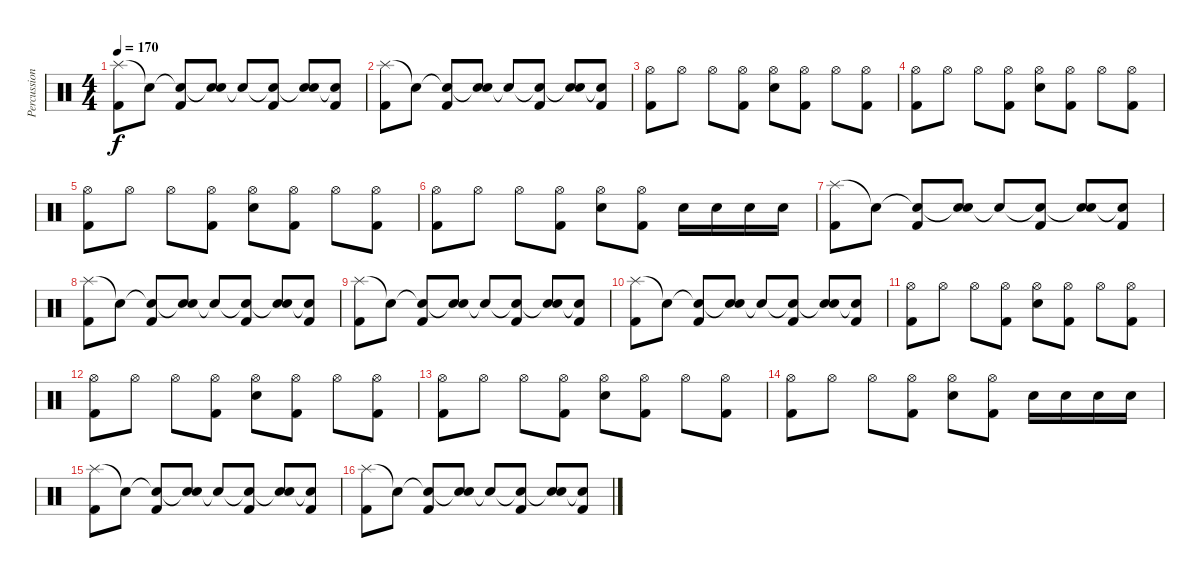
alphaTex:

\track ("Percussion" "Percussion") {instrument percussion}
\staff {score}
\articulation defaults
\ts (4 4)
\tempo 170
\clef neutral
\ks c
("Splash (hit)" "Kick (hit) 2").8{dy f} "Snare (hit)"{t}.8 ("Snare (hit)"{t} "Kick (hit) 2").8 ("Snare (hit)"{t} "Electric Snare (hit)").8 "Snare (hit)"{t}.8 ("Snare (hit)"{t} "Kick (hit) 2").8 ("Snare (hit)"{t} "Electric Snare (hit)").8 ("Snare (hit)"{t} "Kick (hit) 2").8 |
("Splash (hit)" "Kick (hit) 2").8 "Snare (hit)"{t}.8 ("Snare (hit)"{t} "Kick (hit) 2").8 ("Snare (hit)"{t} "Electric Snare (hit)").8 "Snare (hit)"{t}.8 ("Snare (hit)"{t} "Kick (hit) 2").8 ("Snare (hit)"{t} "Electric Snare (hit)").8 ("Snare (hit)"{t} "Kick (hit) 2").8 |
("Hi-Hat (open)" "Kick (hit) 2").8 "Hi-Hat (open)".8 "Hi-Hat (open)".8 ("Hi-Hat (open)" "Kick (hit) 2").8 ("Hi-Hat (open)" "Electric Snare (hit)").8 ("Hi-Hat (open)" "Kick (hit) 2").8 "Hi-Hat (open)".8 ("Hi-Hat (open)" "Kick (hit) 2").8 |
("Hi-Hat (open)" "Kick (hit) 2").8 "Hi-Hat (open)".8 "Hi-Hat (open)".8 ("Hi-Hat (open)" "Kick (hit) 2").8 ("Hi-Hat (open)" "Electric Snare (hit)").8 ("Hi-Hat (open)" "Kick (hit) 2").8 "Hi-Hat (open)".8 ("Hi-Hat (open)" "Kick (hit) 2").8 |
("Hi-Hat (open)" "Kick (hit) 2").8 "Hi-Hat (open)".8 "Hi-Hat (open)".8 ("Hi-Hat (open)" "Kick (hit) 2").8 ("Hi-Hat (open)" "Electric Snare (hit)").8 ("Hi-Hat (open)" "Kick (hit) 2").8 "Hi-Hat (open)".8 ("Hi-Hat (open)" "Kick (hit) 2").8 |
("Hi-Hat (open)" "Kick (hit) 2").8 "Hi-Hat (open)".8 "Hi-Hat (open)".8 ("Hi-Hat (open)" "Kick (hit) 2").8 ("Hi-Hat (open)" "Electric Snare (hit)").8 ("Hi-Hat (open)" "Kick (hit) 2").8 "Electric Snare (hit)".16 "Electric Snare (hit)".16 "Electric Snare (hit)".16 "Electric Snare (hit)".16 |
("Splash (hit)" "Kick (hit) 2").8 "Snare (hit)"{t}.8 ("Snare (hit)"{t} "Kick (hit) 2").8 ("Snare (hit)"{t} "Electric Snare (hit)").8 "Snare (hit)"{t}.8 ("Snare (hit)"{t} "Kick (hit) 2").8 ("Snare (hit)"{t} "Electric Snare (hit)").8 ("Snare (hit)"{t} "Kick (hit) 2").8 |
("Splash (hit)" "Kick (hit) 2").8 "Snare (hit)"{t}.8 ("Snare (hit)"{t} "Kick (hit) 2").8 ("Snare (hit)"{t} "Electric Snare (hit)").8 "Snare (hit)"{t}.8 ("Snare (hit)"{t} "Kick (hit) 2").8 ("Snare (hit)"{t} "Electric Snare (hit)").8 ("Snare (hit)"{t} "Kick (hit) 2").8 |
("Splash (hit)" "Kick (hit) 2").8 "Snare (hit)"{t}.8 ("Snare (hit)"{t} "Kick (hit) 2").8 ("Snare (hit)"{t} "Electric Snare (hit)").8 "Snare (hit)"{t}.8 ("Snare (hit)"{t} "Kick (hit) 2").8 ("Snare (hit)"{t} "Electric Snare (hit)").8 ("Snare (hit)"{t} "Kick (hit) 2").8 |
("Splash (hit)" "Kick (hit) 2").8 "Snare (hit)"{t}.8 ("Snare (hit)"{t} "Kick (hit) 2").8 ("Snare (hit)"{t} "Electric Snare (hit)").8 "Snare (hit)"{t}.8 ("Snare (hit)"{t} "Kick (hit) 2").8 ("Snare (hit)"{t} "Electric Snare (hit)").8 ("Snare (hit)"{t} "Kick (hit) 2").8 |
("Hi-Hat (open)" "Kick (hit) 2").8 "Hi-Hat (open)".8 "Hi-Hat (open)".8 ("Hi-Hat (open)" "Kick (hit) 2").8 ("Hi-Hat (open)" "Electric Snare (hit)").8 ("Hi-Hat (open)" "Kick (hit) 2").8 "Hi-Hat (open)".8 ("Hi-Hat (open)" "Kick (hit) 2").8 |
("Hi-Hat (open)" "Kick (hit) 2").8 "Hi-Hat (open)".8 "Hi-Hat (open)".8 ("Hi-Hat (open)" "Kick (hit) 2").8 ("Hi-Hat (open)" "Electric Snare (hit)").8 ("Hi-Hat (open)" "Kick (hit) 2").8 "Hi-Hat (open)".8 ("Hi-Hat (open)" "Kick (hit) 2").8 |
("Hi-Hat (open)" "Kick (hit) 2").8 "Hi-Hat (open)".8 "Hi-Hat (open)".8 ("Hi-Hat (open)" "Kick (hit) 2").8 ("Hi-Hat (open)" "Electric Snare (hit)").8 ("Hi-Hat (open)" "Kick (hit) 2").8 "Hi-Hat (open)".8 ("Hi-Hat (open)" "Kick (hit) 2").8 |
("Hi-Hat (open)" "Kick (hit) 2").8 "Hi-Hat (open)".8 "Hi-Hat (open)".8 ("Hi-Hat (open)" "Kick (hit) 2").8 ("Hi-Hat (open)" "Electric Snare (hit)").8 ("Hi-Hat (open)" "Kick (hit) 2").8 "Electric Snare (hit)".16 "Electric Snare (hit)".16 "Electric Snare (hit)".16 "Electric Snare (hit)".16 |
("Splash (hit)" "Kick (hit) 2").8 "Snare (hit)"{t}.8 ("Snare (hit)"{t} "Kick (hit) 2").8 ("Snare (hit)"{t} "Electric Snare (hit)").8 "Snare (hit)"{t}.8 ("Snare (hit)"{t} "Kick (hit) 2").8 ("Snare (hit)"{t} "Electric Snare (hit)").8 ("Snare (hit)"{t} "Kick (hit) 2").8 |
("Splash (hit)" "Kick (hit) 2").8 "Snare (hit)"{t}.8 ("Snare (hit)"{t} "Kick (hit) 2").8 ("Snare (hit)"{t} "Electric Snare (hit)").8 "Snare (hit)"{t}.8 ("Snare (hit)"{t} "Kick (hit) 2").8 ("Snare (hit)"{t} "Electric Snare (hit)").8 ("Snare (hit)"{t} "Kick (hit) 2").8
